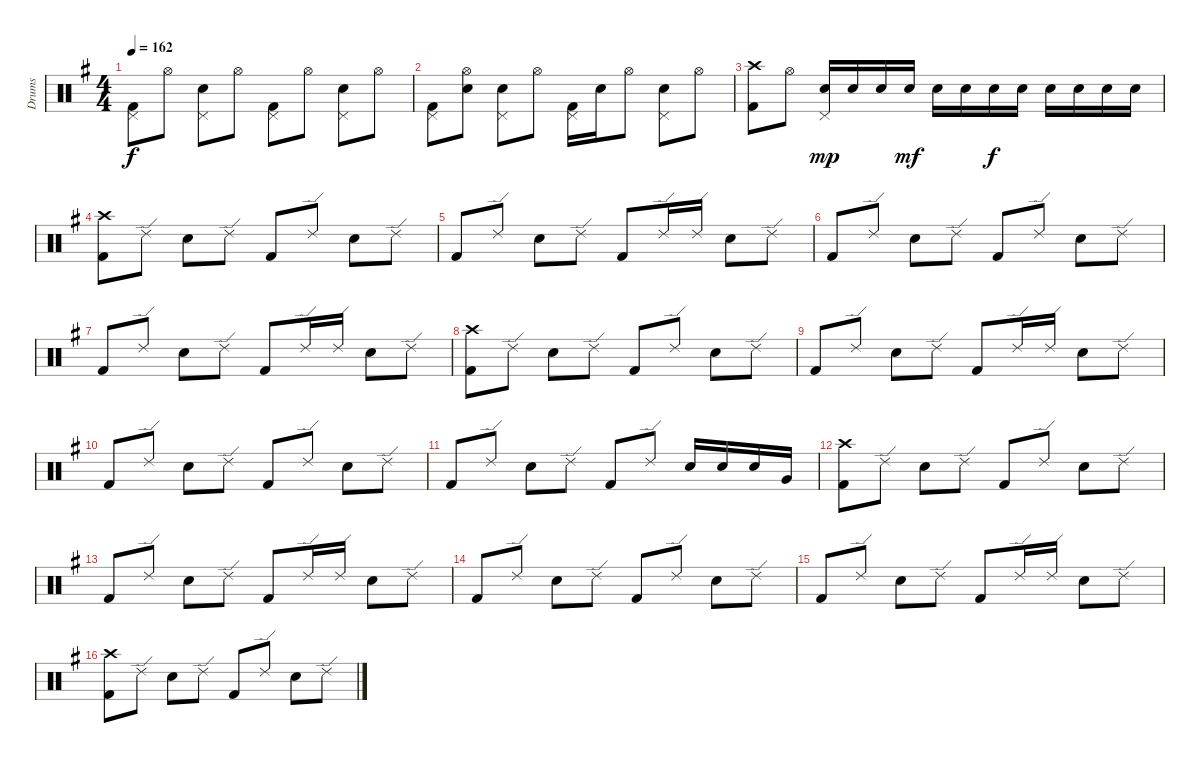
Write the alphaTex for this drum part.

\track ("Drums" "Drums") {instrument percussion}
\staff {score}
\articulation defaults
\ts (4 4)
\tempo 162
\clef neutral
\ks g
("Pedal Hi-Hat (hit)" "Kick (hit) 2").8{dy f} "Hi-Hat (open)".8 ("Electric Snare (hit)" "Pedal Hi-Hat (hit)").8 "Hi-Hat (open)".8 ("Pedal Hi-Hat (hit)" "Kick (hit) 2").8 "Hi-Hat (open)".8 ("Electric Snare (hit)" "Pedal Hi-Hat (hit)").8 "Hi-Hat (open)".8 |
("Pedal Hi-Hat (hit)" "Kick (hit) 2").8 ("Electric Snare (hit)" "Hi-Hat (open)").8 ("Electric Snare (hit)" "Pedal Hi-Hat (hit)").8 "Hi-Hat (open)".8 ("Pedal Hi-Hat (hit)" "Kick (hit) 2").16 "Electric Snare (hit)".16 "Hi-Hat (open)".8 ("Electric Snare (hit)" "Pedal Hi-Hat (hit)").8 "Hi-Hat (open)".8 |
("Crash high (hit)" "Kick (hit) 2").8 "Hi-Hat (open)".8 ("Electric Snare (hit)" "Pedal Hi-Hat (hit)").16{dy mp} "Electric Snare (hit)".16 "Electric Snare (hit)".16 "Electric Snare (hit)".16{dy mf} "Electric Snare (hit)".16 "Electric Snare (hit)".16 "Electric Snare (hit)".16{dy f} "Electric Snare (hit)".16 "Electric Snare (hit)".16 "Electric Snare (hit)".16 "Electric Snare (hit)".16 "Electric Snare (hit)".16 |
("Crash high (hit)" "Kick (hit) 2").8 "Ride (edge) 2".8 "Electric Snare (hit)".8 "Ride (edge) 2".8 "Kick (hit) 2".8 "Ride (edge) 2".8 "Electric Snare (hit)".8 "Ride (edge) 2".8 |
"Kick (hit) 2".8 "Ride (edge) 2".8 "Electric Snare (hit)".8 "Ride (edge) 2".8 "Kick (hit) 2".8 "Ride (edge) 2".16 "Ride (edge) 2".16 "Electric Snare (hit)".8 "Ride (edge) 2".8 |
"Kick (hit) 2".8 "Ride (edge) 2".8 "Electric Snare (hit)".8 "Ride (edge) 2".8 "Kick (hit) 2".8 "Ride (edge) 2".8 "Electric Snare (hit)".8 "Ride (edge) 2".8 |
"Kick (hit) 2".8 "Ride (edge) 2".8 "Electric Snare (hit)".8 "Ride (edge) 2".8 "Kick (hit) 2".8 "Ride (edge) 2".16 "Ride (edge) 2".16 "Electric Snare (hit)".8 "Ride (edge) 2".8 |
("Crash high (hit)" "Kick (hit) 2").8 "Ride (edge) 2".8 "Electric Snare (hit)".8 "Ride (edge) 2".8 "Kick (hit) 2".8 "Ride (edge) 2".8 "Electric Snare (hit)".8 "Ride (edge) 2".8 |
"Kick (hit) 2".8 "Ride (edge) 2".8 "Electric Snare (hit)".8 "Ride (edge) 2".8 "Kick (hit) 2".8 "Ride (edge) 2".16 "Ride (edge) 2".16 "Electric Snare (hit)".8 "Ride (edge) 2".8 |
"Kick (hit) 2".8 "Ride (edge) 2".8 "Electric Snare (hit)".8 "Ride (edge) 2".8 "Kick (hit) 2".8 "Ride (edge) 2".8 "Electric Snare (hit)".8 "Ride (edge) 2".8 |
"Kick (hit) 2".8 "Ride (edge) 2".8 "Electric Snare (hit)".8 "Ride (edge) 2".8 "Kick (hit) 2".8 "Ride (edge) 2".8 "Electric Snare (hit)".16 "Electric Snare (hit)".16 "Electric Snare (hit)".16 "Very Low Tom (hit)".16 |
("Crash high (hit)" "Kick (hit) 2").8 "Ride (edge) 2".8 "Electric Snare (hit)".8 "Ride (edge) 2".8 "Kick (hit) 2".8 "Ride (edge) 2".8 "Electric Snare (hit)".8 "Ride (edge) 2".8 |
"Kick (hit) 2".8 "Ride (edge) 2".8 "Electric Snare (hit)".8 "Ride (edge) 2".8 "Kick (hit) 2".8 "Ride (edge) 2".16 "Ride (edge) 2".16 "Electric Snare (hit)".8 "Ride (edge) 2".8 |
"Kick (hit) 2".8 "Ride (edge) 2".8 "Electric Snare (hit)".8 "Ride (edge) 2".8 "Kick (hit) 2".8 "Ride (edge) 2".8 "Electric Snare (hit)".8 "Ride (edge) 2".8 |
"Kick (hit) 2".8 "Ride (edge) 2".8 "Electric Snare (hit)".8 "Ride (edge) 2".8 "Kick (hit) 2".8 "Ride (edge) 2".16 "Ride (edge) 2".16 "Electric Snare (hit)".8 "Ride (edge) 2".8 |
("Crash high (hit)" "Kick (hit) 2").8 "Ride (edge) 2".8 "Electric Snare (hit)".8 "Ride (edge) 2".8 "Kick (hit) 2".8 "Ride (edge) 2".8 "Electric Snare (hit)".8 "Ride (edge) 2".8
